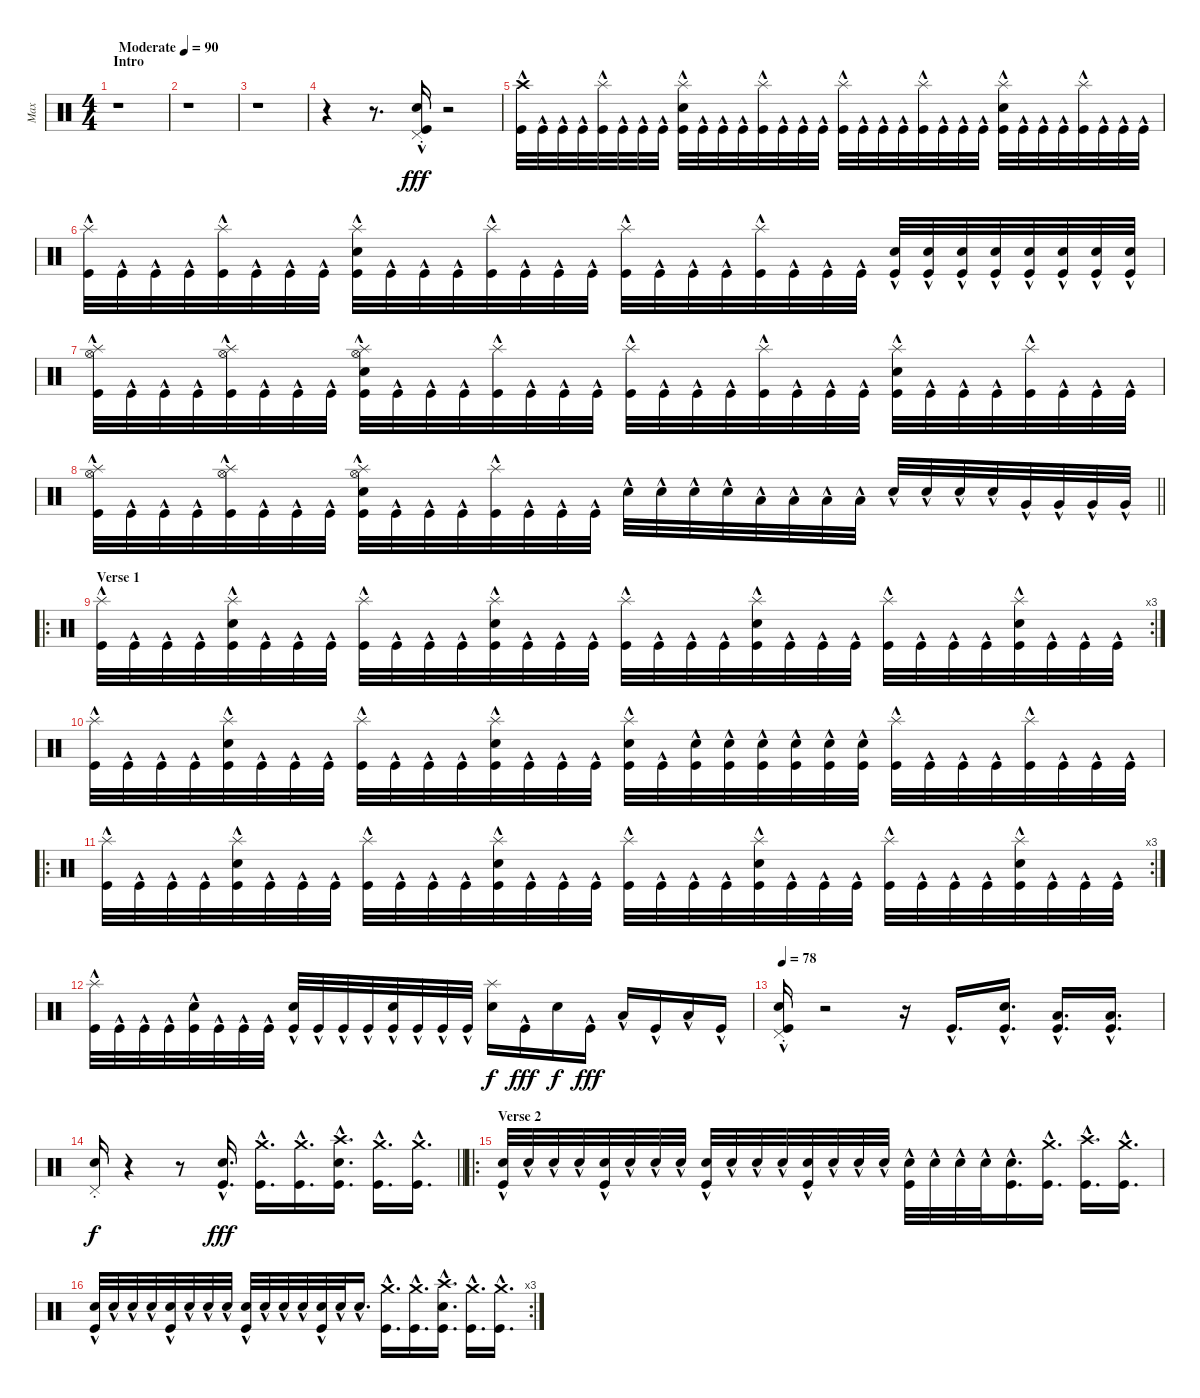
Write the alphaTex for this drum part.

\track ("Max" "Max") {instrument percussion}
\staff {score}
\articulation defaults
\ts (4 4)
\section ("" "Intro")
\tempo (90 "Moderate")
\clef neutral
\ks c
r.1{dy fff} |
r.1 |
r.1 |
r.4 r.8{d} ("Pedal Hi-Hat (hit)"{hac st} "Electric Snare (hit)"{hac} "Kick (hit)"{hac}).16 r.2 |
("Crash high (hit)" "Kick (hit)"{hac}).32 "Kick (hit)"{hac}.32 "Kick (hit)"{hac}.32 "Kick (hit)"{hac}.32 ("Splash (hit)" "Kick (hit)"{hac}).32 "Kick (hit)"{hac}.32 "Kick (hit)"{hac}.32 "Kick (hit)"{hac}.32 ("Splash (hit)" "Electric Snare (hit)" "Kick (hit)"{hac}).32 "Kick (hit)"{hac}.32 "Kick (hit)"{hac}.32 "Kick (hit)"{hac}.32 ("Splash (hit)" "Kick (hit)"{hac}).32 "Kick (hit)"{hac}.32 "Kick (hit)"{hac}.32 "Kick (hit)"{hac}.32 ("Splash (hit)" "Kick (hit)"{hac}).32 "Kick (hit)"{hac}.32 "Kick (hit)"{hac}.32 "Kick (hit)"{hac}.32 ("Splash (hit)" "Kick (hit)"{hac}).32 "Kick (hit)"{hac}.32 "Kick (hit)"{hac}.32 "Kick (hit)"{hac}.32 ("Splash (hit)" "Electric Snare (hit)" "Kick (hit)"{hac}).32 "Kick (hit)"{hac}.32 "Kick (hit)"{hac}.32 "Kick (hit)"{hac}.32 ("Splash (hit)" "Kick (hit)"{hac}).32 "Kick (hit)"{hac}.32 "Kick (hit)"{hac}.32 "Kick (hit)"{hac}.32 |
("Splash (hit)" "Kick (hit)"{hac}).32 "Kick (hit)"{hac}.32 "Kick (hit)"{hac}.32 "Kick (hit)"{hac}.32 ("Splash (hit)" "Kick (hit)"{hac}).32 "Kick (hit)"{hac}.32 "Kick (hit)"{hac}.32 "Kick (hit)"{hac}.32 ("Splash (hit)" "Electric Snare (hit)" "Kick (hit)"{hac}).32 "Kick (hit)"{hac}.32 "Kick (hit)"{hac}.32 "Kick (hit)"{hac}.32 ("Splash (hit)" "Kick (hit)"{hac}).32 "Kick (hit)"{hac}.32 "Kick (hit)"{hac}.32 "Kick (hit)"{hac}.32 ("Splash (hit)" "Kick (hit)"{hac}).32 "Kick (hit)"{hac}.32 "Kick (hit)"{hac}.32 "Kick (hit)"{hac}.32 ("Splash (hit)" "Kick (hit)"{hac}).32 "Kick (hit)"{hac}.32 "Kick (hit)"{hac}.32 "Kick (hit)"{hac}.32 ("Electric Snare (hit)" "Kick (hit)"{hac}).32 ("Electric Snare (hit)" "Kick (hit)"{hac}).32 ("Electric Snare (hit)" "Kick (hit)"{hac}).32 ("Electric Snare (hit)" "Kick (hit)"{hac}).32 ("Electric Snare (hit)" "Kick (hit)"{hac}).32 ("Electric Snare (hit)" "Kick (hit)"{hac}).32 ("Electric Snare (hit)" "Kick (hit)"{hac}).32 ("Electric Snare (hit)" "Kick (hit)"{hac}).32 |
("Hi-Hat (open)" "Splash (hit)"{hac} "Kick (hit)"{hac}).32 "Kick (hit)"{hac}.32 "Kick (hit)"{hac}.32 "Kick (hit)"{hac}.32 ("Hi-Hat (open)" "Splash (hit)"{hac} "Kick (hit)"{hac}).32 "Kick (hit)"{hac}.32 "Kick (hit)"{hac}.32 "Kick (hit)"{hac}.32 ("Hi-Hat (open)" "Splash (hit)"{hac} "Electric Snare (hit)" "Kick (hit)"{hac}).32 "Kick (hit)"{hac}.32 "Kick (hit)"{hac}.32 "Kick (hit)"{hac}.32 ("Splash (hit)" "Kick (hit)"{hac}).32 "Kick (hit)"{hac}.32 "Kick (hit)"{hac}.32 "Kick (hit)"{hac}.32 ("Splash (hit)" "Kick (hit)"{hac}).32 "Kick (hit)"{hac}.32 "Kick (hit)"{hac}.32 "Kick (hit)"{hac}.32 ("Splash (hit)" "Kick (hit)"{hac}).32 "Kick (hit)"{hac}.32 "Kick (hit)"{hac}.32 "Kick (hit)"{hac}.32 ("Splash (hit)" "Electric Snare (hit)" "Kick (hit)"{hac}).32 "Kick (hit)"{hac}.32 "Kick (hit)"{hac}.32 "Kick (hit)"{hac}.32 ("Splash (hit)" "Kick (hit)"{hac}).32 "Kick (hit)"{hac}.32 "Kick (hit)"{hac}.32 "Kick (hit)"{hac}.32 |
\barLineRight lightlight
("Hi-Hat (open)" "Splash (hit)"{hac} "Kick (hit)"{hac}).32 "Kick (hit)"{hac}.32 "Kick (hit)"{hac}.32 "Kick (hit)"{hac}.32 ("Hi-Hat (open)" "Splash (hit)"{hac} "Kick (hit)"{hac}).32 "Kick (hit)"{hac}.32 "Kick (hit)"{hac}.32 "Kick (hit)"{hac}.32 ("Hi-Hat (open)" "Splash (hit)"{hac} "Electric Snare (hit)" "Kick (hit)"{hac}).32 "Kick (hit)"{hac}.32 "Kick (hit)"{hac}.32 "Kick (hit)"{hac}.32 ("Splash (hit)" "Kick (hit)"{hac}).32 "Kick (hit)"{hac}.32 "Kick (hit)"{hac}.32 "Kick (hit)"{hac}.32 "Electric Snare (hit)"{hac}.32 "Electric Snare (hit)"{hac}.32 "Electric Snare (hit)"{hac}.32 "Electric Snare (hit)"{hac}.32 "Low Tom (hit)"{hac}.32 "Low Tom (hit)"{hac}.32 "Low Tom (hit)"{hac}.32 "Low Tom (hit)"{hac}.32 "Electric Snare (hit)"{hac}.32 "Electric Snare (hit)"{hac}.32 "Electric Snare (hit)"{hac}.32 "Electric Snare (hit)"{hac}.32 "Very Low Tom (hit)"{hac}.32 "Very Low Tom (hit)"{hac}.32 "Very Low Tom (hit)"{hac}.32 "Very Low Tom (hit)"{hac}.32 |
\ro
\rc 3
\section ("" "Verse 1")
("Splash (hit)"{hac} "Kick (hit)"{hac}).32 "Kick (hit)"{hac}.32 "Kick (hit)"{hac}.32 "Kick (hit)"{hac}.32 ("Splash (hit)" "Electric Snare (hit)" "Kick (hit)"{hac}).32 "Kick (hit)"{hac}.32 "Kick (hit)"{hac}.32 "Kick (hit)"{hac}.32 ("Splash (hit)" "Kick (hit)"{hac}).32 "Kick (hit)"{hac}.32 "Kick (hit)"{hac}.32 "Kick (hit)"{hac}.32 ("Splash (hit)" "Electric Snare (hit)" "Kick (hit)"{hac}).32 "Kick (hit)"{hac}.32 "Kick (hit)"{hac}.32 "Kick (hit)"{hac}.32 ("Splash (hit)" "Kick (hit)"{hac}).32 "Kick (hit)"{hac}.32 "Kick (hit)"{hac}.32 "Kick (hit)"{hac}.32 ("Splash (hit)" "Electric Snare (hit)" "Kick (hit)"{hac}).32 "Kick (hit)"{hac}.32 "Kick (hit)"{hac}.32 "Kick (hit)"{hac}.32 ("Splash (hit)" "Kick (hit)"{hac}).32 "Kick (hit)"{hac}.32 "Kick (hit)"{hac}.32 "Kick (hit)"{hac}.32 ("Splash (hit)" "Electric Snare (hit)" "Kick (hit)"{hac}).32 "Kick (hit)"{hac}.32 "Kick (hit)"{hac}.32 "Kick (hit)"{hac}.32 |
("Splash (hit)"{hac} "Kick (hit)"{hac}).32 "Kick (hit)"{hac}.32 "Kick (hit)"{hac}.32 "Kick (hit)"{hac}.32 ("Splash (hit)" "Electric Snare (hit)" "Kick (hit)"{hac}).32 "Kick (hit)"{hac}.32 "Kick (hit)"{hac}.32 "Kick (hit)"{hac}.32 ("Splash (hit)" "Kick (hit)"{hac}).32 "Kick (hit)"{hac}.32 "Kick (hit)"{hac}.32 "Kick (hit)"{hac}.32 ("Splash (hit)" "Electric Snare (hit)" "Kick (hit)"{hac}).32 "Kick (hit)"{hac}.32 "Kick (hit)"{hac}.32 "Kick (hit)"{hac}.32 ("Splash (hit)" "Electric Snare (hit)" "Kick (hit)"{hac}).32 "Kick (hit)"{hac}.32 ("Electric Snare (hit)" "Kick (hit)"{hac}).32 ("Electric Snare (hit)" "Kick (hit)"{hac}).32 ("Electric Snare (hit)" "Kick (hit)"{hac}).32 ("Electric Snare (hit)" "Kick (hit)"{hac}).32 ("Electric Snare (hit)" "Kick (hit)"{hac}).32 ("Electric Snare (hit)" "Kick (hit)"{hac}).32 ("Splash (hit)"{hac} "Kick (hit)"{hac}).32 "Kick (hit)"{hac}.32 "Kick (hit)"{hac}.32 "Kick (hit)"{hac}.32 ("Splash (hit)"{hac} "Kick (hit)"{hac}).32 "Kick (hit)"{hac}.32 "Kick (hit)"{hac}.32 "Kick (hit)"{hac}.32 |
\ro
\rc 3
("Splash (hit)"{hac} "Kick (hit)"{hac}).32 "Kick (hit)"{hac}.32 "Kick (hit)"{hac}.32 "Kick (hit)"{hac}.32 ("Splash (hit)" "Electric Snare (hit)" "Kick (hit)"{hac}).32 "Kick (hit)"{hac}.32 "Kick (hit)"{hac}.32 "Kick (hit)"{hac}.32 ("Splash (hit)" "Kick (hit)"{hac}).32 "Kick (hit)"{hac}.32 "Kick (hit)"{hac}.32 "Kick (hit)"{hac}.32 ("Splash (hit)" "Electric Snare (hit)" "Kick (hit)"{hac}).32 "Kick (hit)"{hac}.32 "Kick (hit)"{hac}.32 "Kick (hit)"{hac}.32 ("Splash (hit)" "Kick (hit)"{hac}).32 "Kick (hit)"{hac}.32 "Kick (hit)"{hac}.32 "Kick (hit)"{hac}.32 ("Splash (hit)" "Electric Snare (hit)" "Kick (hit)"{hac}).32 "Kick (hit)"{hac}.32 "Kick (hit)"{hac}.32 "Kick (hit)"{hac}.32 ("Splash (hit)" "Kick (hit)"{hac}).32 "Kick (hit)"{hac}.32 "Kick (hit)"{hac}.32 "Kick (hit)"{hac}.32 ("Splash (hit)" "Electric Snare (hit)" "Kick (hit)"{hac}).32 "Kick (hit)"{hac}.32 "Kick (hit)"{hac}.32 "Kick (hit)"{hac}.32 |
("Splash (hit)"{hac} "Kick (hit)"{hac}).32 "Kick (hit)"{hac}.32 "Kick (hit)"{hac}.32 "Kick (hit)"{hac}.32 ("Electric Snare (hit)" "Kick (hit)"{hac}).32 "Kick (hit)"{hac}.32 "Kick (hit)"{hac}.32 "Kick (hit)"{hac}.32 ("Electric Snare (hit)" "Kick (hit)"{hac}).32 "Kick (hit)"{hac}.32 "Kick (hit)"{hac}.32 "Kick (hit)"{hac}.32 ("Electric Snare (hit)" "Kick (hit)"{hac}).32 "Kick (hit)"{hac}.32 "Kick (hit)"{hac}.32 "Kick (hit)"{hac}.32 ("Splash (hit)" "Electric Snare (hit)").16{dy f} "Kick (hit)"{hac}.16{dy fff} "Electric Snare (hit)".16{dy f} "Kick (hit)"{hac}.16{dy fff} "Low Tom (hit)"{hac}.16 "Kick (hit)"{hac}.16 "Low Tom (hit)"{hac}.16 "Kick (hit)"{hac}.16 |
\tempo 78
("Pedal Hi-Hat (hit)"{hac st} "Electric Snare (hit)"{hac} "Kick (hit)"{hac}).16 r.2 r.16 "Kick (hit)"{hac}.16{d} ("Electric Snare (hit)" "Kick (hit)"{hac}).16{d} ("Low Tom (hit)" "Kick (hit)"{hac}).16{d} ("Low Tom (hit)" "Kick (hit)"{hac}).16{d} |
\barLineRight lightlight
("Pedal Hi-Hat (hit)"{st} "Electric Snare (hit)").16{dy f} r.4 r.8 ("Electric Snare (hit)" "Kick (hit)"{hac}).16{d dy fff} ("Crash medium (hit)" "Kick (hit)"{hac}).16{d} ("Crash medium (hit)" "Kick (hit)"{hac}).16{d} ("Crash high (hit)" "Electric Snare (hit)" "Kick (hit)"{hac}).16{d} ("Crash medium (hit)" "Kick (hit)"{hac}).16{d} ("Crash medium (hit)" "Kick (hit)"{hac}).16{d} |
\ro
\section ("" "Verse 2")
("Electric Snare (hit)"{hac} "Kick (hit)"{hac}).32 "Electric Snare (hit)"{hac}.32 "Electric Snare (hit)"{hac}.32 "Electric Snare (hit)"{hac}.32 ("Electric Snare (hit)"{hac} "Kick (hit)"{hac}).32 "Electric Snare (hit)"{hac}.32 "Electric Snare (hit)"{hac}.32 "Electric Snare (hit)"{hac}.32 ("Electric Snare (hit)"{hac} "Kick (hit)"{hac}).32 "Electric Snare (hit)"{hac}.32 "Electric Snare (hit)"{hac}.32 "Electric Snare (hit)"{hac}.32 ("Electric Snare (hit)"{hac} "Kick (hit)"{hac}).32 "Electric Snare (hit)"{hac}.32 "Electric Snare (hit)"{hac}.32 "Electric Snare (hit)"{hac}.32 ("Electric Snare (hit)"{hac} "Kick (hit)"{hac}).32 "Electric Snare (hit)"{hac}.32 "Electric Snare (hit)"{hac}.32 "Electric Snare (hit)"{hac}.32 ("Electric Snare (hit)"{hac} "Kick (hit)"{hac}).16{d} ("Crash medium (hit)" "Kick (hit)"{hac}).16{d} ("Crash high (hit)" "Kick (hit)"{hac}).16{d} ("Crash medium (hit)" "Kick (hit)"{hac}).16{d} |
\rc 3
("Electric Snare (hit)"{hac} "Kick (hit)"{hac}).32 "Electric Snare (hit)"{hac}.32 "Electric Snare (hit)"{hac}.32 "Electric Snare (hit)"{hac}.32 ("Electric Snare (hit)"{hac} "Kick (hit)"{hac}).32 "Electric Snare (hit)"{hac}.32 "Electric Snare (hit)"{hac}.32 "Electric Snare (hit)"{hac}.32 ("Electric Snare (hit)"{hac} "Kick (hit)"{hac}).32 "Electric Snare (hit)"{hac}.32 "Electric Snare (hit)"{hac}.32 "Electric Snare (hit)"{hac}.32 ("Electric Snare (hit)"{hac} "Kick (hit)"{hac}).32 "Electric Snare (hit)"{hac}.32 "Electric Snare (hit)"{hac}.16{d} ("Crash medium (hit)" "Kick (hit)"{hac}).16{d} ("Crash medium (hit)" "Kick (hit)"{hac}).16{d} ("Crash high (hit)" "Electric Snare (hit)" "Kick (hit)"{hac}).16{d} ("Crash medium (hit)" "Kick (hit)"{hac}).16{d} ("Crash medium (hit)" "Kick (hit)"{hac}).16{d}
